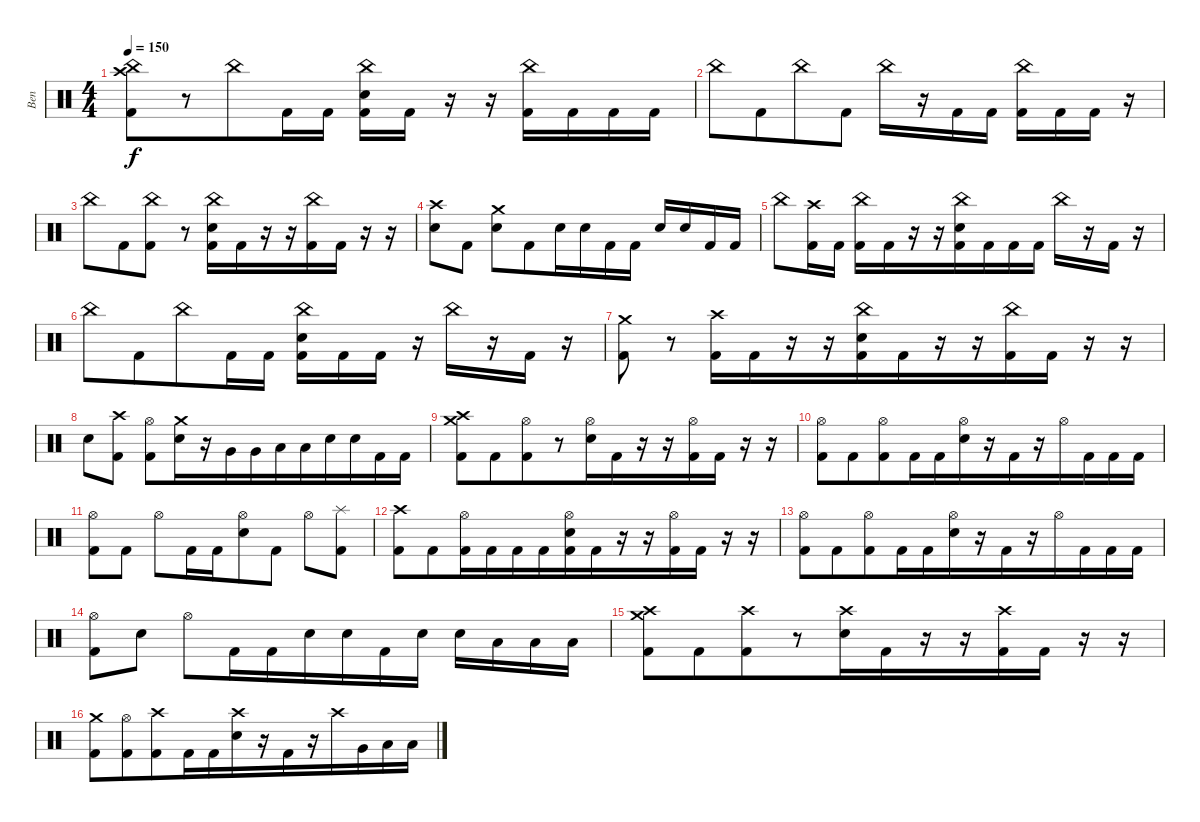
\track ("Ben" "Ben") {instrument percussion}
\staff {score}
\articulation defaults
\ts (4 4)
\tempo 150
\clef neutral
\ks c
("Crash high (hit)" "China (hit)" "Kick (hit) 2").8{dy f beam merge} r.8 "China (hit)".8{beam merge} "Kick (hit) 2".16{beam merge} "Kick (hit) 2".16 ("China (hit)" "Electric Snare (hit)" "Kick (hit) 2").16 "Kick (hit) 2".16 r.16 r.16 ("China (hit)" "Kick (hit) 2").16 "Kick (hit) 2".16{beam merge} "Kick (hit) 2".16{beam merge} "Kick (hit) 2".16 |
"China (hit)".8{beam merge} "Kick (hit) 2".8{beam merge} "China (hit)".8 "Kick (hit) 2".8 "China (hit)".16 r.16{beam merge} "Kick (hit) 2".16 "Kick (hit) 2".16 ("China (hit)" "Kick (hit) 2").16{beam merge} "Kick (hit) 2".16{beam merge} "Kick (hit) 2".16 r.16 |
"China (hit)".8 "Kick (hit) 2".8{beam merge} ("China (hit)" "Kick (hit) 2").8 r.8 ("China (hit)" "Electric Snare (hit)" "Kick (hit) 2").16{beam merge} "Kick (hit) 2".16{beam merge} r.16{beam merge} r.16 ("Kick (hit) 2" "China (hit)").16{beam merge} "Kick (hit) 2".16 r.16 r.16 |
("Electric Snare (hit)" "Crash high (hit)").8{beam merge} "Kick (hit) 2".8 ("Crash medium (hit)" "Electric Snare (hit)").8{beam merge} "Kick (hit) 2".8{beam merge} "Electric Snare (hit)".16 "Electric Snare (hit)".16 "Kick (hit) 2".16{beam merge} "Kick (hit) 2".16 "Electric Snare (hit)".16 "Electric Snare (hit)".16{beam merge} "Kick (hit) 2".16{beam merge} "Kick (hit) 2".16 |
"China (hit)".8{beam merge} ("Crash high (hit)" "Kick (hit) 2").16{beam merge} "Kick (hit) 2".16 ("China (hit)" "Kick (hit) 2").16{beam merge} "Kick (hit) 2".16{beam merge} r.16{beam merge} r.16 ("China (hit)" "Electric Snare (hit)" "Kick (hit) 2").16 "Kick (hit) 2".16 "Kick (hit) 2".16 "Kick (hit) 2".16 "China (hit)".16 r.16{beam merge} "Kick (hit) 2".16{beam merge} r.16 |
"China (hit)".8{beam merge} "Kick (hit) 2".8{beam merge} "China (hit)".8{beam merge} "Kick (hit) 2".16 "Kick (hit) 2".16 ("China (hit)" "Electric Snare (hit)" "Kick (hit) 2").16 "Kick (hit) 2".16{beam merge} "Kick (hit) 2".16 r.16 "China (hit)".16{beam merge} r.16{beam merge} "Kick (hit) 2".16{beam merge} r.16 |
("Crash medium (hit)" "Kick (hit) 2").8 r.8{beam merge} ("Crash high (hit)" "Kick (hit) 2").16 "Kick (hit) 2".16{beam merge} r.16{beam merge} r.16 ("China (hit)" "Electric Snare (hit)" "Kick (hit) 2").16{beam merge} "Kick (hit) 2".16{beam merge} r.16{beam merge} r.16 ("Kick (hit) 2" "China (hit)").16{beam merge} "Kick (hit) 2".16 r.16 r.16 |
"Electric Snare (hit)".8 ("Crash high (hit)" "Kick (hit) 2").8 ("Hi-Hat (open)" "Kick (hit) 2").8{beam merge} ("Crash medium (hit)" "Electric Snare (hit)").16{beam merge} r.16 "Very Low Tom (hit)".16{beam merge} "Very Low Tom (hit)".16 "Low Floor Tom (hit)".16{beam merge} "Low Floor Tom (hit)".16{beam merge} "Electric Snare (hit)".16 "Electric Snare (hit)".16 "Kick (hit) 2".16{beam merge} "Kick (hit) 2".16 |
("Crash high (hit)" "Kick (hit) 2" "Crash medium (hit)").8 "Kick (hit) 2".8{beam merge} ("Hi-Hat (open)" "Kick (hit) 2").8{beam merge} r.8{beam merge} ("Hi-Hat (open)" "Electric Snare (hit)").16 "Kick (hit) 2".16{beam merge} r.16 r.16{beam merge} ("Hi-Hat (open)" "Kick (hit) 2").16{beam merge} "Kick (hit) 2".16{beam merge} r.16 r.16 |
("Kick (hit) 2" "Hi-Hat (open)").8{beam merge} "Kick (hit) 2".8{beam merge} ("Kick (hit) 2" "Hi-Hat (open)").8{beam merge} "Kick (hit) 2".16 "Kick (hit) 2".16{beam merge} ("Electric Snare (hit)" "Hi-Hat (open)").16 r.16{beam merge} "Kick (hit) 2".16{beam merge} r.16{beam merge} "Hi-Hat (open)".16 "Kick (hit) 2".16{beam merge} "Kick (hit) 2".16{beam merge} "Kick (hit) 2".16 |
("Hi-Hat (open)" "Kick (hit) 2").8 "Kick (hit) 2".8 "Hi-Hat (open)".8{beam merge} "Kick (hit) 2".16 "Kick (hit) 2".16{beam merge} ("Hi-Hat (open)" "Electric Snare (hit)").8 "Kick (hit) 2".8 "Hi-Hat (open)".8{beam merge} ("Splash (hit)" "Kick (hit) 2").8 |
("Crash high (hit)" "Kick (hit) 2").8 "Kick (hit) 2".8{beam merge} ("Hi-Hat (open)" "Kick (hit) 2").16{beam merge} "Kick (hit) 2".16{beam merge} "Kick (hit) 2".16{beam merge} "Kick (hit) 2".16{beam merge} ("Hi-Hat (open)" "Kick (hit) 2" "Electric Snare (hit)").16 "Kick (hit) 2".16{beam merge} r.16 r.16{beam merge} ("Hi-Hat (open)" "Kick (hit) 2").16{beam merge} "Kick (hit) 2".16{beam merge} r.16 r.16 |
("Kick (hit) 2" "Hi-Hat (open)").8{beam merge} "Kick (hit) 2".8{beam merge} ("Kick (hit) 2" "Hi-Hat (open)").8{beam merge} "Kick (hit) 2".16 "Kick (hit) 2".16{beam merge} ("Electric Snare (hit)" "Hi-Hat (open)").16 r.16{beam merge} "Kick (hit) 2".16{beam merge} r.16{beam merge} "Hi-Hat (open)".16 "Kick (hit) 2".16{beam merge} "Kick (hit) 2".16{beam merge} "Kick (hit) 2".16 |
("Hi-Hat (open)" "Kick (hit) 2").8 "Electric Snare (hit)".8 "Hi-Hat (open)".8{beam merge} "Kick (hit) 2".16 "Kick (hit) 2".16{beam merge} "Electric Snare (hit)".16 "Electric Snare (hit)".16 "Kick (hit) 2".16{beam merge} "Electric Snare (hit)".16 "Electric Snare (hit)".16 "Low Tom (hit)".16{beam merge} "Low Tom (hit)".16{beam merge} "Low Floor Tom (hit)".16 |
("Crash high (hit)" "Crash medium (hit)" "Kick (hit) 2").8 "Kick (hit) 2".8{beam merge} ("Crash high (hit)" "Kick (hit) 2").8{beam merge} r.8{beam merge} ("Crash high (hit)" "Electric Snare (hit)").16 "Kick (hit) 2".16{beam merge} r.16 r.16{beam merge} ("Crash high (hit)" "Kick (hit) 2").16{beam merge} "Kick (hit) 2".16{beam merge} r.16 r.16 |
("Kick (hit) 2" "Crash medium (hit)").8{beam merge} ("Kick (hit) 2" "Hi-Hat (open)").8{beam merge} ("Kick (hit) 2" "Crash high (hit)").8{beam merge} "Kick (hit) 2".16 "Kick (hit) 2".16{beam merge} ("Electric Snare (hit)" "Crash high (hit)").16 r.16{beam merge} "Kick (hit) 2".16{beam merge} r.16{beam merge} "Crash high (hit)".16 "Very Low Tom (hit)".16{beam merge} "Low Floor Tom (hit)".16{beam merge} "Low Floor Tom (hit)".16
